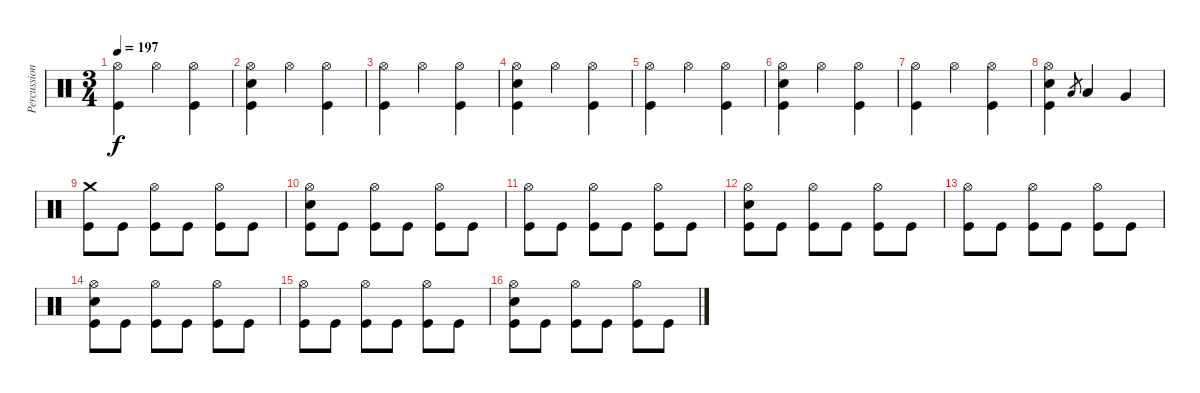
\track ("Percussion" "Percussion") {instrument percussion}
\staff {score}
\articulation defaults
\ts (3 4)
\tempo 197
\clef neutral
\ks c
("Hi-Hat (open)" "Kick (hit)").4{dy f} "Hi-Hat (open)".4 ("Hi-Hat (open)" "Kick (hit)").4 |
("Hi-Hat (open)" "Electric Snare (hit)" "Kick (hit)").4 "Hi-Hat (open)".4 ("Hi-Hat (open)" "Kick (hit)").4 |
("Hi-Hat (open)" "Kick (hit)").4 "Hi-Hat (open)".4 ("Hi-Hat (open)" "Kick (hit)").4 |
("Hi-Hat (open)" "Electric Snare (hit)" "Kick (hit)").4 "Hi-Hat (open)".4 ("Hi-Hat (open)" "Kick (hit)").4 |
("Hi-Hat (open)" "Kick (hit)").4 "Hi-Hat (open)".4 ("Hi-Hat (open)" "Kick (hit)").4 |
("Hi-Hat (open)" "Electric Snare (hit)" "Kick (hit)").4 "Hi-Hat (open)".4 ("Hi-Hat (open)" "Kick (hit)").4 |
("Hi-Hat (open)" "Kick (hit)").4 "Hi-Hat (open)".4 ("Hi-Hat (open)" "Kick (hit)").4 |
("Hi-Hat (open)" "Electric Snare (hit)" "Kick (hit)").4 "Low Tom (hit)".8{gr} "Low Tom (hit)".4 "Very Low Tom (hit)".4 |
("Crash medium (hit)" "Kick (hit)").8 "Kick (hit)".8 ("Hi-Hat (open)" "Kick (hit)").8 "Kick (hit)".8 ("Hi-Hat (open)" "Kick (hit)").8 "Kick (hit)".8 |
("Hi-Hat (open)" "Electric Snare (hit)" "Kick (hit)").8 "Kick (hit)".8 ("Hi-Hat (open)" "Kick (hit)").8 "Kick (hit)".8 ("Hi-Hat (open)" "Kick (hit)").8 "Kick (hit)".8 |
("Hi-Hat (open)" "Kick (hit)").8 "Kick (hit)".8 ("Hi-Hat (open)" "Kick (hit)").8 "Kick (hit)".8 ("Hi-Hat (open)" "Kick (hit)").8 "Kick (hit)".8 |
("Hi-Hat (open)" "Electric Snare (hit)" "Kick (hit)").8 "Kick (hit)".8 ("Hi-Hat (open)" "Kick (hit)").8 "Kick (hit)".8 ("Hi-Hat (open)" "Kick (hit)").8 "Kick (hit)".8 |
("Hi-Hat (open)" "Kick (hit)").8 "Kick (hit)".8 ("Hi-Hat (open)" "Kick (hit)").8 "Kick (hit)".8 ("Hi-Hat (open)" "Kick (hit)").8 "Kick (hit)".8 |
("Hi-Hat (open)" "Electric Snare (hit)" "Kick (hit)").8 "Kick (hit)".8 ("Hi-Hat (open)" "Kick (hit)").8 "Kick (hit)".8 ("Hi-Hat (open)" "Kick (hit)").8 "Kick (hit)".8 |
("Hi-Hat (open)" "Kick (hit)").8 "Kick (hit)".8 ("Hi-Hat (open)" "Kick (hit)").8 "Kick (hit)".8 ("Hi-Hat (open)" "Kick (hit)").8 "Kick (hit)".8 |
("Hi-Hat (open)" "Electric Snare (hit)" "Kick (hit)").8 "Kick (hit)".8 ("Hi-Hat (open)" "Kick (hit)").8 "Kick (hit)".8 ("Hi-Hat (open)" "Kick (hit)").8 "Kick (hit)".8
